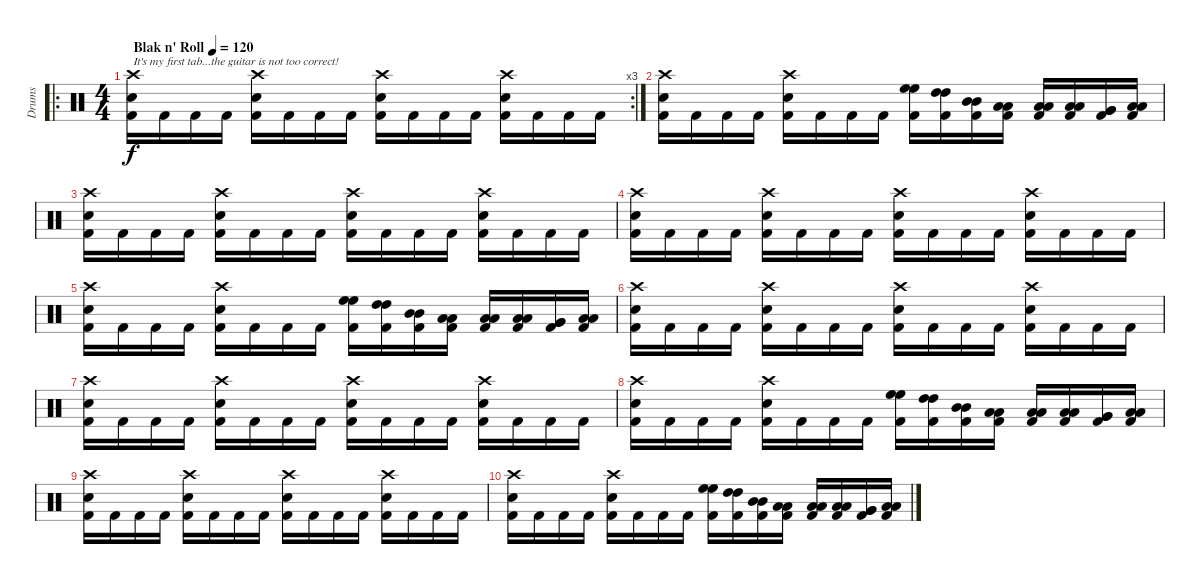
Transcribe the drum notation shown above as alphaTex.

\track ("Drums" "Drums") {instrument percussion}
\staff
\articulation defaults
\ro
\rc 3
\ts (4 4)
\tempo (120 "Blak n' Roll")
\clef neutral
\ks c
("Crash high (hit)" "Electric Snare (hit)" "Kick (hit) 2").16{txt "It's my first tab...the guitar is not too correct!" dy f} "Kick (hit) 2".16 "Kick (hit) 2".16 "Kick (hit) 2".16 ("Crash high (hit)" "Electric Snare (hit)" "Kick (hit) 2").16 "Kick (hit) 2".16 "Kick (hit) 2".16 "Kick (hit) 2".16 ("Crash high (hit)" "Electric Snare (hit)" "Kick (hit) 2").16 "Kick (hit) 2".16 "Kick (hit) 2".16 "Kick (hit) 2".16 ("Crash high (hit)" "Electric Snare (hit)" "Kick (hit) 2").16 "Kick (hit) 2".16 "Kick (hit) 2".16 "Kick (hit) 2".16 |
("Crash high (hit)" "Electric Snare (hit)" "Kick (hit) 2").16 "Kick (hit) 2".16 "Kick (hit) 2".16 "Kick (hit) 2".16 ("Crash high (hit)" "Electric Snare (hit)" "Kick (hit) 2").16 "Kick (hit) 2".16 "Kick (hit) 2".16 "Kick (hit) 2".16 ("High Floor Tom (hit)" "High Floor Tom (hit)" "Kick (hit) 2").16 ("High Tom (hit)" "High Tom (hit)" "Kick (hit) 2").16 ("Mid Tom (hit)" "Mid Tom (hit)" "Kick (hit) 2").16 ("Low Tom (hit)" "Low Tom (hit)" "Kick (hit) 2").16 ("Low Tom (hit)" "Low Tom (hit)" "Kick (hit) 2").16 ("Low Tom (hit)" "Low Tom (hit)" "Kick (hit) 2").16 ("Very Low Tom (hit)" "Very Low Tom (hit)" "Kick (hit) 2").16 ("Low Floor Tom (hit)" "Low Floor Tom (hit)" "Kick (hit) 2").16 |
("Crash high (hit)" "Electric Snare (hit)" "Kick (hit) 2").16 "Kick (hit) 2".16 "Kick (hit) 2".16 "Kick (hit) 2".16 ("Crash high (hit)" "Electric Snare (hit)" "Kick (hit) 2").16 "Kick (hit) 2".16 "Kick (hit) 2".16 "Kick (hit) 2".16 ("Crash high (hit)" "Electric Snare (hit)" "Kick (hit) 2").16 "Kick (hit) 2".16 "Kick (hit) 2".16 "Kick (hit) 2".16 ("Crash high (hit)" "Electric Snare (hit)" "Kick (hit) 2").16 "Kick (hit) 2".16 "Kick (hit) 2".16 "Kick (hit) 2".16 |
("Crash high (hit)" "Electric Snare (hit)" "Kick (hit) 2").16 "Kick (hit) 2".16 "Kick (hit) 2".16 "Kick (hit) 2".16 ("Crash high (hit)" "Electric Snare (hit)" "Kick (hit) 2").16 "Kick (hit) 2".16 "Kick (hit) 2".16 "Kick (hit) 2".16 ("Crash high (hit)" "Electric Snare (hit)" "Kick (hit) 2").16 "Kick (hit) 2".16 "Kick (hit) 2".16 "Kick (hit) 2".16 ("Crash high (hit)" "Electric Snare (hit)" "Kick (hit) 2").16 "Kick (hit) 2".16 "Kick (hit) 2".16 "Kick (hit) 2".16 |
("Crash high (hit)" "Electric Snare (hit)" "Kick (hit) 2").16 "Kick (hit) 2".16 "Kick (hit) 2".16 "Kick (hit) 2".16 ("Crash high (hit)" "Electric Snare (hit)" "Kick (hit) 2").16 "Kick (hit) 2".16 "Kick (hit) 2".16 "Kick (hit) 2".16 ("High Floor Tom (hit)" "High Floor Tom (hit)" "Kick (hit) 2").16 ("High Tom (hit)" "High Tom (hit)" "Kick (hit) 2").16 ("Mid Tom (hit)" "Mid Tom (hit)" "Kick (hit) 2").16 ("Low Tom (hit)" "Low Tom (hit)" "Kick (hit) 2").16 ("Low Tom (hit)" "Low Tom (hit)" "Kick (hit) 2").16 ("Low Tom (hit)" "Low Tom (hit)" "Kick (hit) 2").16 ("Very Low Tom (hit)" "Very Low Tom (hit)" "Kick (hit) 2").16 ("Low Floor Tom (hit)" "Low Floor Tom (hit)" "Kick (hit) 2").16 |
("Crash high (hit)" "Electric Snare (hit)" "Kick (hit) 2").16 "Kick (hit) 2".16 "Kick (hit) 2".16 "Kick (hit) 2".16 ("Crash high (hit)" "Electric Snare (hit)" "Kick (hit) 2").16 "Kick (hit) 2".16 "Kick (hit) 2".16 "Kick (hit) 2".16 ("Crash high (hit)" "Electric Snare (hit)" "Kick (hit) 2").16 "Kick (hit) 2".16 "Kick (hit) 2".16 "Kick (hit) 2".16 ("Crash high (hit)" "Electric Snare (hit)" "Kick (hit) 2").16 "Kick (hit) 2".16 "Kick (hit) 2".16 "Kick (hit) 2".16 |
("Crash high (hit)" "Electric Snare (hit)" "Kick (hit) 2").16 "Kick (hit) 2".16 "Kick (hit) 2".16 "Kick (hit) 2".16 ("Crash high (hit)" "Electric Snare (hit)" "Kick (hit) 2").16 "Kick (hit) 2".16 "Kick (hit) 2".16 "Kick (hit) 2".16 ("Crash high (hit)" "Electric Snare (hit)" "Kick (hit) 2").16 "Kick (hit) 2".16 "Kick (hit) 2".16 "Kick (hit) 2".16 ("Crash high (hit)" "Electric Snare (hit)" "Kick (hit) 2").16 "Kick (hit) 2".16 "Kick (hit) 2".16 "Kick (hit) 2".16 |
("Crash high (hit)" "Electric Snare (hit)" "Kick (hit) 2").16 "Kick (hit) 2".16 "Kick (hit) 2".16 "Kick (hit) 2".16 ("Crash high (hit)" "Electric Snare (hit)" "Kick (hit) 2").16 "Kick (hit) 2".16 "Kick (hit) 2".16 "Kick (hit) 2".16 ("High Floor Tom (hit)" "High Floor Tom (hit)" "Kick (hit) 2").16 ("High Tom (hit)" "High Tom (hit)" "Kick (hit) 2").16 ("Mid Tom (hit)" "Mid Tom (hit)" "Kick (hit) 2").16 ("Low Tom (hit)" "Low Tom (hit)" "Kick (hit) 2").16 ("Low Tom (hit)" "Low Tom (hit)" "Kick (hit) 2").16 ("Low Tom (hit)" "Low Tom (hit)" "Kick (hit) 2").16 ("Very Low Tom (hit)" "Very Low Tom (hit)" "Kick (hit) 2").16 ("Low Floor Tom (hit)" "Low Floor Tom (hit)" "Kick (hit) 2").16 |
("Crash high (hit)" "Electric Snare (hit)" "Kick (hit) 2").16 "Kick (hit) 2".16 "Kick (hit) 2".16 "Kick (hit) 2".16 ("Crash high (hit)" "Electric Snare (hit)" "Kick (hit) 2").16 "Kick (hit) 2".16 "Kick (hit) 2".16 "Kick (hit) 2".16 ("Crash high (hit)" "Electric Snare (hit)" "Kick (hit) 2").16 "Kick (hit) 2".16 "Kick (hit) 2".16 "Kick (hit) 2".16 ("Crash high (hit)" "Electric Snare (hit)" "Kick (hit) 2").16 "Kick (hit) 2".16 "Kick (hit) 2".16 "Kick (hit) 2".16 |
("Crash high (hit)" "Electric Snare (hit)" "Kick (hit) 2").16 "Kick (hit) 2".16 "Kick (hit) 2".16 "Kick (hit) 2".16 ("Crash high (hit)" "Electric Snare (hit)" "Kick (hit) 2").16 "Kick (hit) 2".16 "Kick (hit) 2".16 "Kick (hit) 2".16 ("High Floor Tom (hit)" "High Floor Tom (hit)" "Kick (hit) 2").16 ("High Tom (hit)" "High Tom (hit)" "Kick (hit) 2").16 ("Mid Tom (hit)" "Mid Tom (hit)" "Kick (hit) 2").16 ("Low Tom (hit)" "Low Tom (hit)" "Kick (hit) 2").16 ("Low Tom (hit)" "Low Tom (hit)" "Kick (hit) 2").16 ("Low Tom (hit)" "Low Tom (hit)" "Kick (hit) 2").16 ("Very Low Tom (hit)" "Very Low Tom (hit)" "Kick (hit) 2").16 ("Low Floor Tom (hit)" "Low Floor Tom (hit)" "Kick (hit) 2").16
